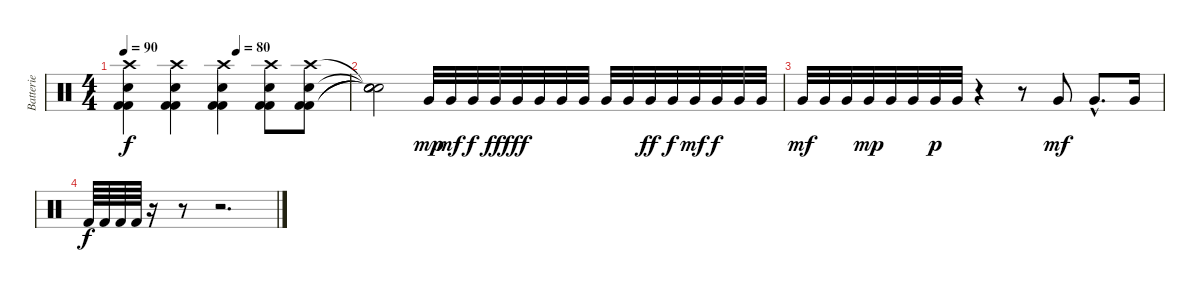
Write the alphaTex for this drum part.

\track ("Batterie" "Batterie") {instrument percussion}
\staff {score}
\articulation defaults
\ts (4 4)
\tempo 90
\tempo (80 0.5)
\clef neutral
\ks c
("Crash high (hit)" "Snare (hit) 2" "Kick (hit) 2" "Kick (hit) 2").4{dy f} ("Crash high (hit)" "Snare (hit) 2" "Kick (hit) 2" "Kick (hit) 2").4 ("Crash high (hit)" "Snare (hit) 2" "Kick (hit) 2" "Kick (hit) 2").4 ("Crash high (hit)" "Snare (hit) 2" "Kick (hit) 2" "Kick (hit) 2").8 ("Crash high (hit)" "Snare (hit) 2" "Kick (hit) 2" "Kick (hit) 2").8 |
("Snare (hit)"{t} "Snare (hit)"{t} "Snare (hit)"{t} "Snare (hit)"{t}).2 "Very Low Tom (hit)".32{dy mp} "Very Low Tom (hit)".32{dy mf} "Very Low Tom (hit)".32{dy f} "Very Low Tom (hit)".32{dy ff} "Very Low Tom (hit)".32{dy fff} "Very Low Tom (hit)".32 "Very Low Tom (hit)".32 "Very Low Tom (hit)".32 "Very Low Tom (hit)".32 "Very Low Tom (hit)".32 "Very Low Tom (hit)".32{dy ff} "Very Low Tom (hit)".32{dy f} "Very Low Tom (hit)".32{dy mf} "Very Low Tom (hit)".32{dy f} "Very Low Tom (hit)".32 "Very Low Tom (hit)".32 |
"Very Low Tom (hit)".32{dy mf} "Very Low Tom (hit)".32 "Very Low Tom (hit)".32 "Very Low Tom (hit)".32{dy mp} "Very Low Tom (hit)".32 "Very Low Tom (hit)".32 "Very Low Tom (hit)".32{dy p} "Very Low Tom (hit)".32 r.4 r.8 "Very Low Tom (hit)".8{dy mf} "Very Low Tom (hit)"{hac}.8{d} "Very Low Tom (hit)".16 |
"Kick (hit) 2".64{dy f} "Kick (hit) 2".64 "Kick (hit) 2".64 "Kick (hit) 2".64 r.16 r.8 r.2{d}
